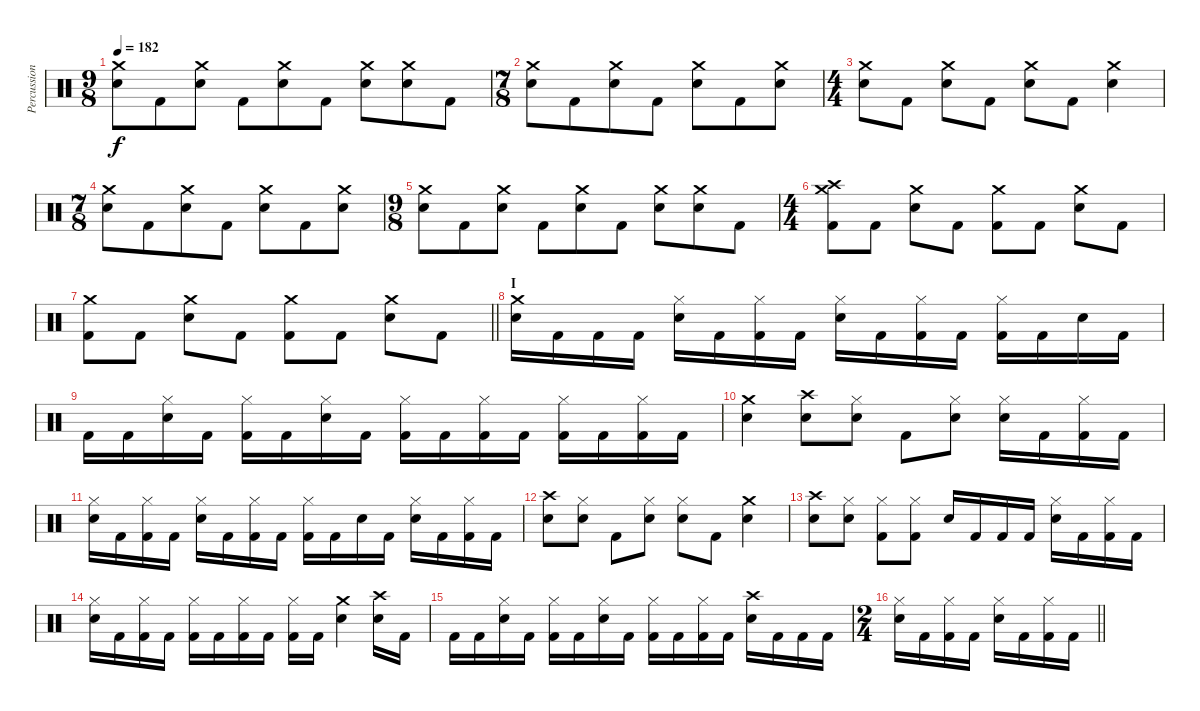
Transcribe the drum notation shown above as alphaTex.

\track ("Percussion" "Percussion") {instrument percussion}
\staff {score}
\articulation defaults
\ts (9 8)
\tempo 182
\clef neutral
\ks c
("Crash medium (hit)" "Electric Snare (hit)").8{dy f} "Kick (hit) 2".8 ("Crash medium (hit)" "Electric Snare (hit)").8 "Kick (hit) 2".8 ("Crash medium (hit)" "Electric Snare (hit)").8 "Kick (hit) 2".8 ("Crash medium (hit)" "Electric Snare (hit)").8 ("Crash medium (hit)" "Electric Snare (hit)").8 "Kick (hit) 2".8 |
\ts (7 8)
("Crash medium (hit)" "Electric Snare (hit)").8 "Kick (hit) 2".8 ("Crash medium (hit)" "Electric Snare (hit)").8 "Kick (hit) 2".8 ("Crash medium (hit)" "Electric Snare (hit)").8 "Kick (hit) 2".8 ("Crash medium (hit)" "Electric Snare (hit)").8 |
\ts (4 4)
("Crash medium (hit)" "Electric Snare (hit)").8 "Kick (hit) 2".8 ("Crash medium (hit)" "Electric Snare (hit)").8 "Kick (hit) 2".8 ("Crash medium (hit)" "Electric Snare (hit)").8 "Kick (hit) 2".8 ("Crash medium (hit)" "Electric Snare (hit)").4 |
\ts (7 8)
("Crash medium (hit)" "Electric Snare (hit)").8 "Kick (hit) 2".8 ("Crash medium (hit)" "Electric Snare (hit)").8 "Kick (hit) 2".8 ("Crash medium (hit)" "Electric Snare (hit)").8 "Kick (hit) 2".8 ("Crash medium (hit)" "Electric Snare (hit)").8 |
\ts (9 8)
("Crash medium (hit)" "Electric Snare (hit)").8 "Kick (hit) 2".8 ("Crash medium (hit)" "Electric Snare (hit)").8 "Kick (hit) 2".8 ("Crash medium (hit)" "Electric Snare (hit)").8 "Kick (hit) 2".8 ("Crash medium (hit)" "Electric Snare (hit)").8 ("Crash medium (hit)" "Electric Snare (hit)").8 "Kick (hit) 2".8 |
\ts (4 4)
("Crash medium (hit)" "Crash high (hit)" "Kick (hit) 2").8 "Kick (hit) 2".8 ("Crash medium (hit)" "Electric Snare (hit)").8 "Kick (hit) 2".8 ("Crash medium (hit)" "Kick (hit) 2").8 "Kick (hit) 2".8 ("Crash medium (hit)" "Electric Snare (hit)").8 "Kick (hit) 2".8 |
\barLineRight lightlight
("Crash medium (hit)" "Kick (hit) 2").8 "Kick (hit) 2".8 ("Crash medium (hit)" "Electric Snare (hit)").8 "Kick (hit) 2".8 ("Crash medium (hit)" "Kick (hit) 2").8 "Kick (hit) 2".8 ("Crash medium (hit)" "Electric Snare (hit)").8 "Kick (hit) 2".8 |
\section ("" "I")
("Crash medium (hit)" "Electric Snare (hit)").16 "Kick (hit) 2".16 "Kick (hit) 2".16 "Kick (hit) 2".16 ("Hi-Hat (closed)" "Electric Snare (hit)").16 "Kick (hit) 2".16 ("Hi-Hat (closed)" "Kick (hit) 2").16 "Kick (hit) 2".16 ("Hi-Hat (closed)" "Electric Snare (hit)").16 "Kick (hit) 2".16 ("Hi-Hat (closed)" "Kick (hit) 2").16 "Kick (hit) 2".16 ("Hi-Hat (closed)" "Kick (hit) 2").16 "Kick (hit) 2".16 "Electric Snare (hit)".16 "Kick (hit) 2".16 |
"Kick (hit) 2".16 "Kick (hit) 2".16 ("Hi-Hat (closed)" "Electric Snare (hit)").16 "Kick (hit) 2".16 ("Hi-Hat (closed)" "Kick (hit) 2").16 "Kick (hit) 2".16 ("Hi-Hat (closed)" "Electric Snare (hit)").16 "Kick (hit) 2".16 ("Hi-Hat (closed)" "Kick (hit) 2").16 "Kick (hit) 2".16 ("Hi-Hat (closed)" "Kick (hit) 2").16 "Kick (hit) 2".16 ("Hi-Hat (closed)" "Kick (hit) 2").16 "Kick (hit) 2".16 ("Hi-Hat (closed)" "Kick (hit) 2").16 "Kick (hit) 2".16 |
("Crash medium (hit)" "Electric Snare (hit)").4 ("Crash high (hit)" "Electric Snare (hit)").8 ("Hi-Hat (closed)" "Electric Snare (hit)").8 "Kick (hit) 2".8 ("Hi-Hat (closed)" "Electric Snare (hit)").8 ("Hi-Hat (closed)" "Electric Snare (hit)").16 "Kick (hit) 2".16 ("Hi-Hat (closed)" "Kick (hit) 2").16 "Kick (hit) 2".16 |
("Hi-Hat (closed)" "Electric Snare (hit)").16 "Kick (hit) 2".16 ("Hi-Hat (closed)" "Kick (hit) 2").16 "Kick (hit) 2".16 ("Hi-Hat (closed)" "Electric Snare (hit)").16 "Kick (hit) 2".16 ("Hi-Hat (closed)" "Kick (hit) 2").16 "Kick (hit) 2".16 ("Hi-Hat (closed)" "Kick (hit) 2").16 "Kick (hit) 2".16 "Electric Snare (hit)".16 "Kick (hit) 2".16 ("Hi-Hat (closed)" "Electric Snare (hit)").16 "Kick (hit) 2".16 ("Hi-Hat (closed)" "Kick (hit) 2").16 "Kick (hit) 2".16 |
("Crash high (hit)" "Electric Snare (hit)").8 ("Hi-Hat (closed)" "Electric Snare (hit)").8 "Kick (hit) 2".8 ("Hi-Hat (closed)" "Electric Snare (hit)").8 ("Hi-Hat (closed)" "Electric Snare (hit)").8 "Kick (hit) 2".8 ("Crash medium (hit)" "Electric Snare (hit)").4 |
("Crash high (hit)" "Electric Snare (hit)").8 ("Hi-Hat (closed)" "Electric Snare (hit)").8 ("Hi-Hat (closed)" "Kick (hit) 2").8 ("Hi-Hat (closed)" "Kick (hit) 2").8 "Electric Snare (hit)".16 "Kick (hit) 2".16 "Kick (hit) 2".16 "Kick (hit) 2".16 ("Hi-Hat (closed)" "Electric Snare (hit)").16 "Kick (hit) 2".16 ("Hi-Hat (closed)" "Kick (hit) 2").16 "Kick (hit) 2".16 |
("Hi-Hat (closed)" "Electric Snare (hit)").16 "Kick (hit) 2".16 ("Hi-Hat (closed)" "Kick (hit) 2").16 "Kick (hit) 2".16 ("Hi-Hat (closed)" "Kick (hit) 2").16 "Kick (hit) 2".16 ("Hi-Hat (closed)" "Kick (hit) 2").16 "Kick (hit) 2".16 ("Hi-Hat (closed)" "Kick (hit) 2").16 "Kick (hit) 2".16 ("Crash medium (hit)" "Electric Snare (hit)").4 ("Crash high (hit)" "Electric Snare (hit)").16 "Kick (hit) 2".16 |
"Kick (hit) 2".16 "Kick (hit) 2".16 ("Hi-Hat (closed)" "Electric Snare (hit)").16 "Kick (hit) 2".16 ("Hi-Hat (closed)" "Kick (hit) 2").16 "Kick (hit) 2".16 ("Hi-Hat (closed)" "Electric Snare (hit)").16 "Kick (hit) 2".16 ("Hi-Hat (closed)" "Kick (hit) 2").16 "Kick (hit) 2".16 ("Hi-Hat (closed)" "Kick (hit) 2").16 "Kick (hit) 2".16 ("Crash high (hit)" "Electric Snare (hit)").16 "Kick (hit) 2".16 "Kick (hit) 2".16 "Kick (hit) 2".16 |
\ts (2 4)
\barLineRight lightlight
("Hi-Hat (closed)" "Electric Snare (hit)").16 "Kick (hit) 2".16 ("Hi-Hat (closed)" "Kick (hit) 2").16 "Kick (hit) 2".16 ("Hi-Hat (closed)" "Electric Snare (hit)").16 "Kick (hit) 2".16 ("Hi-Hat (closed)" "Kick (hit) 2").16 "Kick (hit) 2".16
